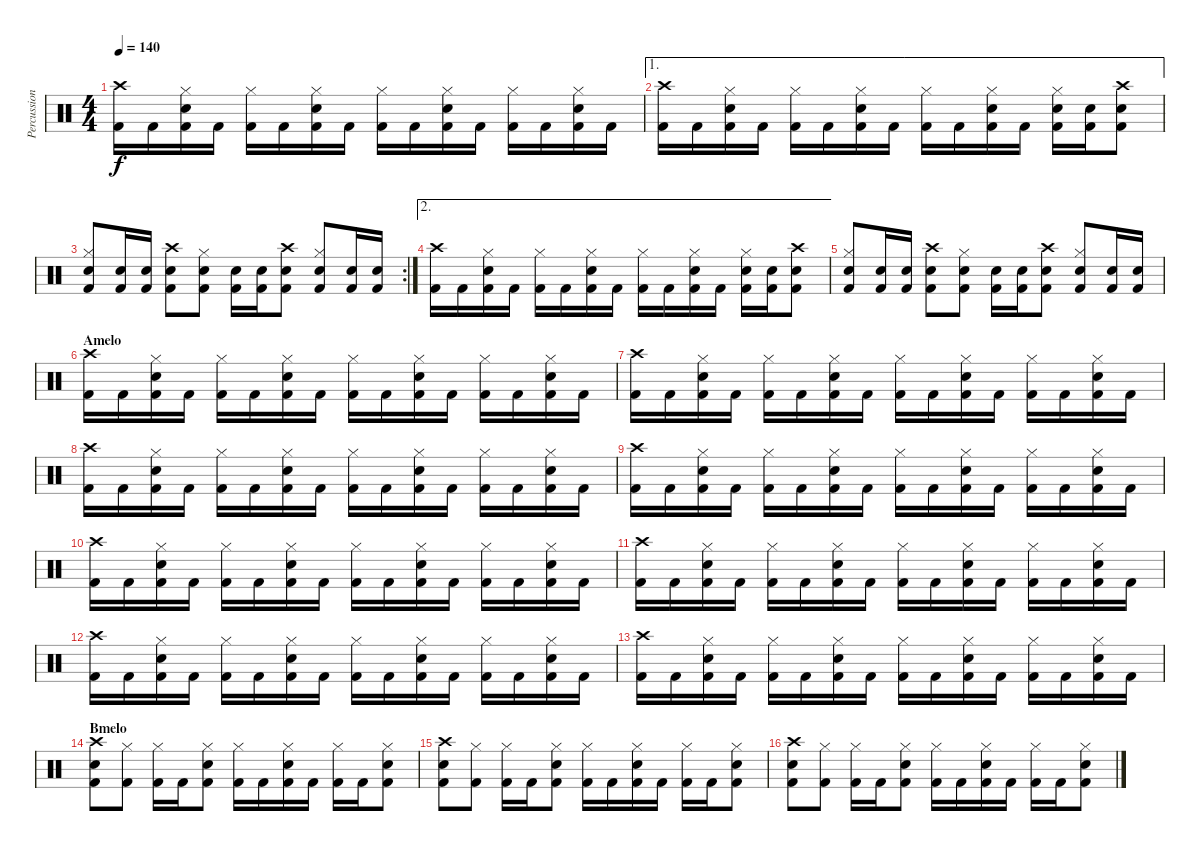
\track ("Percussion" "Percussion") {instrument percussion}
\staff {score}
\articulation defaults
\ts (4 4)
\tempo 140
\clef neutral
\ks aminor
("Crash high (hit)" "Kick (hit) 2").16{dy f} "Kick (hit) 2".16 ("Hi-Hat (closed)" "Snare (hit) 2" "Kick (hit) 2").16 "Kick (hit) 2".16 ("Hi-Hat (closed)" "Kick (hit) 2").16 "Kick (hit) 2".16 ("Hi-Hat (closed)" "Snare (hit) 2" "Kick (hit) 2").16 "Kick (hit) 2".16 ("Hi-Hat (closed)" "Kick (hit) 2").16 "Kick (hit) 2".16 ("Hi-Hat (closed)" "Snare (hit) 2" "Kick (hit) 2").16 "Kick (hit) 2".16 ("Hi-Hat (closed)" "Kick (hit) 2").16 "Kick (hit) 2".16 ("Hi-Hat (closed)" "Snare (hit) 2" "Kick (hit) 2").16 "Kick (hit) 2".16 |
\ae 1
("Crash high (hit)" "Kick (hit) 2").16 "Kick (hit) 2".16 ("Hi-Hat (closed)" "Snare (hit) 2" "Kick (hit) 2").16 "Kick (hit) 2".16 ("Hi-Hat (closed)" "Kick (hit) 2").16 "Kick (hit) 2".16 ("Hi-Hat (closed)" "Snare (hit) 2" "Kick (hit) 2").16 "Kick (hit) 2".16 ("Hi-Hat (closed)" "Kick (hit) 2").16 "Kick (hit) 2".16 ("Hi-Hat (closed)" "Snare (hit) 2" "Kick (hit) 2").16 "Kick (hit) 2".16 ("Hi-Hat (closed)" "Snare (hit) 2" "Kick (hit) 2").16 ("Snare (hit) 2" "Kick (hit) 2").16 ("Crash high (hit)" "Snare (hit) 2" "Kick (hit) 2").8 |
\rc 2
("Hi-Hat (closed)" "Snare (hit) 2" "Kick (hit) 2").8 ("Snare (hit) 2" "Kick (hit) 2").16 ("Snare (hit) 2" "Kick (hit) 2").16 ("Crash high (hit)" "Snare (hit) 2" "Kick (hit) 2").8 ("Hi-Hat (closed)" "Snare (hit) 2" "Kick (hit) 2").8 ("Snare (hit) 2" "Kick (hit) 2").16 ("Snare (hit) 2" "Kick (hit) 2").16 ("Crash high (hit)" "Snare (hit) 2" "Kick (hit) 2").8 ("Hi-Hat (closed)" "Snare (hit) 2" "Kick (hit) 2").8 ("Snare (hit) 2" "Kick (hit) 2").16 ("Snare (hit) 2" "Kick (hit) 2").16 |
\ae 2
("Crash high (hit)" "Kick (hit) 2").16 "Kick (hit) 2".16 ("Hi-Hat (closed)" "Snare (hit) 2" "Kick (hit) 2").16 "Kick (hit) 2".16 ("Hi-Hat (closed)" "Kick (hit) 2").16 "Kick (hit) 2".16 ("Hi-Hat (closed)" "Snare (hit) 2" "Kick (hit) 2").16 "Kick (hit) 2".16 ("Hi-Hat (closed)" "Kick (hit) 2").16 "Kick (hit) 2".16 ("Hi-Hat (closed)" "Snare (hit) 2" "Kick (hit) 2").16 "Kick (hit) 2".16 ("Hi-Hat (closed)" "Snare (hit) 2" "Kick (hit) 2").16 ("Snare (hit) 2" "Kick (hit) 2").16 ("Crash high (hit)" "Snare (hit) 2" "Kick (hit) 2").8 |
("Hi-Hat (closed)" "Snare (hit) 2" "Kick (hit) 2").8 ("Snare (hit) 2" "Kick (hit) 2").16 ("Snare (hit) 2" "Kick (hit) 2").16 ("Crash high (hit)" "Snare (hit) 2" "Kick (hit) 2").8 ("Hi-Hat (closed)" "Snare (hit) 2" "Kick (hit) 2").8 ("Snare (hit) 2" "Kick (hit) 2").16 ("Snare (hit) 2" "Kick (hit) 2").16 ("Crash high (hit)" "Snare (hit) 2" "Kick (hit) 2").8 ("Hi-Hat (closed)" "Snare (hit) 2" "Kick (hit) 2").8 ("Snare (hit) 2" "Kick (hit) 2").16 ("Snare (hit) 2" "Kick (hit) 2").16 |
\section ("" "Amelo")
("Crash high (hit)" "Kick (hit) 2").16 "Kick (hit) 2".16 ("Hi-Hat (closed)" "Snare (hit) 2" "Kick (hit) 2").16 "Kick (hit) 2".16 ("Hi-Hat (closed)" "Kick (hit) 2").16 "Kick (hit) 2".16 ("Hi-Hat (closed)" "Snare (hit) 2" "Kick (hit) 2").16 "Kick (hit) 2".16 ("Hi-Hat (closed)" "Kick (hit) 2").16 "Kick (hit) 2".16 ("Hi-Hat (closed)" "Snare (hit) 2" "Kick (hit) 2").16 "Kick (hit) 2".16 ("Hi-Hat (closed)" "Kick (hit) 2").16 "Kick (hit) 2".16 ("Hi-Hat (closed)" "Snare (hit) 2" "Kick (hit) 2").16 "Kick (hit) 2".16 |
("Crash high (hit)" "Kick (hit) 2").16 "Kick (hit) 2".16 ("Hi-Hat (closed)" "Snare (hit) 2" "Kick (hit) 2").16 "Kick (hit) 2".16 ("Hi-Hat (closed)" "Kick (hit) 2").16 "Kick (hit) 2".16 ("Hi-Hat (closed)" "Snare (hit) 2" "Kick (hit) 2").16 "Kick (hit) 2".16 ("Hi-Hat (closed)" "Kick (hit) 2").16 "Kick (hit) 2".16 ("Hi-Hat (closed)" "Snare (hit) 2" "Kick (hit) 2").16 "Kick (hit) 2".16 ("Hi-Hat (closed)" "Kick (hit) 2").16 "Kick (hit) 2".16 ("Hi-Hat (closed)" "Snare (hit) 2" "Kick (hit) 2").16 "Kick (hit) 2".16 |
("Crash high (hit)" "Kick (hit) 2").16 "Kick (hit) 2".16 ("Hi-Hat (closed)" "Snare (hit) 2" "Kick (hit) 2").16 "Kick (hit) 2".16 ("Hi-Hat (closed)" "Kick (hit) 2").16 "Kick (hit) 2".16 ("Hi-Hat (closed)" "Snare (hit) 2" "Kick (hit) 2").16 "Kick (hit) 2".16 ("Hi-Hat (closed)" "Kick (hit) 2").16 "Kick (hit) 2".16 ("Hi-Hat (closed)" "Snare (hit) 2" "Kick (hit) 2").16 "Kick (hit) 2".16 ("Hi-Hat (closed)" "Kick (hit) 2").16 "Kick (hit) 2".16 ("Hi-Hat (closed)" "Snare (hit) 2" "Kick (hit) 2").16 "Kick (hit) 2".16 |
("Crash high (hit)" "Kick (hit) 2").16 "Kick (hit) 2".16 ("Hi-Hat (closed)" "Snare (hit) 2" "Kick (hit) 2").16 "Kick (hit) 2".16 ("Hi-Hat (closed)" "Kick (hit) 2").16 "Kick (hit) 2".16 ("Hi-Hat (closed)" "Snare (hit) 2" "Kick (hit) 2").16 "Kick (hit) 2".16 ("Hi-Hat (closed)" "Kick (hit) 2").16 "Kick (hit) 2".16 ("Hi-Hat (closed)" "Snare (hit) 2" "Kick (hit) 2").16 "Kick (hit) 2".16 ("Hi-Hat (closed)" "Kick (hit) 2").16 "Kick (hit) 2".16 ("Hi-Hat (closed)" "Snare (hit) 2" "Kick (hit) 2").16 "Kick (hit) 2".16 |
("Crash high (hit)" "Kick (hit) 2").16 "Kick (hit) 2".16 ("Hi-Hat (closed)" "Snare (hit) 2" "Kick (hit) 2").16 "Kick (hit) 2".16 ("Hi-Hat (closed)" "Kick (hit) 2").16 "Kick (hit) 2".16 ("Hi-Hat (closed)" "Snare (hit) 2" "Kick (hit) 2").16 "Kick (hit) 2".16 ("Hi-Hat (closed)" "Kick (hit) 2").16 "Kick (hit) 2".16 ("Hi-Hat (closed)" "Snare (hit) 2" "Kick (hit) 2").16 "Kick (hit) 2".16 ("Hi-Hat (closed)" "Kick (hit) 2").16 "Kick (hit) 2".16 ("Hi-Hat (closed)" "Snare (hit) 2" "Kick (hit) 2").16 "Kick (hit) 2".16 |
("Crash high (hit)" "Kick (hit) 2").16 "Kick (hit) 2".16 ("Hi-Hat (closed)" "Snare (hit) 2" "Kick (hit) 2").16 "Kick (hit) 2".16 ("Hi-Hat (closed)" "Kick (hit) 2").16 "Kick (hit) 2".16 ("Hi-Hat (closed)" "Snare (hit) 2" "Kick (hit) 2").16 "Kick (hit) 2".16 ("Hi-Hat (closed)" "Kick (hit) 2").16 "Kick (hit) 2".16 ("Hi-Hat (closed)" "Snare (hit) 2" "Kick (hit) 2").16 "Kick (hit) 2".16 ("Hi-Hat (closed)" "Kick (hit) 2").16 "Kick (hit) 2".16 ("Hi-Hat (closed)" "Snare (hit) 2" "Kick (hit) 2").16 "Kick (hit) 2".16 |
("Crash high (hit)" "Kick (hit) 2").16 "Kick (hit) 2".16 ("Hi-Hat (closed)" "Snare (hit) 2" "Kick (hit) 2").16 "Kick (hit) 2".16 ("Hi-Hat (closed)" "Kick (hit) 2").16 "Kick (hit) 2".16 ("Hi-Hat (closed)" "Snare (hit) 2" "Kick (hit) 2").16 "Kick (hit) 2".16 ("Hi-Hat (closed)" "Kick (hit) 2").16 "Kick (hit) 2".16 ("Hi-Hat (closed)" "Snare (hit) 2" "Kick (hit) 2").16 "Kick (hit) 2".16 ("Hi-Hat (closed)" "Kick (hit) 2").16 "Kick (hit) 2".16 ("Hi-Hat (closed)" "Snare (hit) 2" "Kick (hit) 2").16 "Kick (hit) 2".16 |
("Crash high (hit)" "Kick (hit) 2").16 "Kick (hit) 2".16 ("Hi-Hat (closed)" "Snare (hit) 2" "Kick (hit) 2").16 "Kick (hit) 2".16 ("Hi-Hat (closed)" "Kick (hit) 2").16 "Kick (hit) 2".16 ("Hi-Hat (closed)" "Snare (hit) 2" "Kick (hit) 2").16 "Kick (hit) 2".16 ("Hi-Hat (closed)" "Kick (hit) 2").16 "Kick (hit) 2".16 ("Hi-Hat (closed)" "Snare (hit) 2" "Kick (hit) 2").16 "Kick (hit) 2".16 ("Hi-Hat (closed)" "Kick (hit) 2").16 "Kick (hit) 2".16 ("Hi-Hat (closed)" "Snare (hit) 2" "Kick (hit) 2").16 "Kick (hit) 2".16 |
\section ("" "Bmelo")
("Crash high (hit)" "Snare (hit) 2" "Kick (hit) 2").8 ("Hi-Hat (closed)" "Kick (hit) 2").8 ("Hi-Hat (closed)" "Kick (hit) 2").16 "Kick (hit) 2".16 ("Hi-Hat (closed)" "Snare (hit) 2" "Kick (hit) 2").8 ("Hi-Hat (closed)" "Kick (hit) 2").16 "Kick (hit) 2".16 ("Hi-Hat (closed)" "Snare (hit) 2" "Kick (hit) 2").16 "Kick (hit) 2".16 ("Hi-Hat (closed)" "Kick (hit) 2").16 "Kick (hit) 2".16 ("Hi-Hat (closed)" "Snare (hit) 2" "Kick (hit) 2").8 |
("Crash high (hit)" "Snare (hit) 2" "Kick (hit) 2").8 ("Hi-Hat (closed)" "Kick (hit) 2").8 ("Hi-Hat (closed)" "Kick (hit) 2").16 "Kick (hit) 2".16 ("Hi-Hat (closed)" "Snare (hit) 2" "Kick (hit) 2").8 ("Hi-Hat (closed)" "Kick (hit) 2").16 "Kick (hit) 2".16 ("Hi-Hat (closed)" "Snare (hit) 2" "Kick (hit) 2").16 "Kick (hit) 2".16 ("Hi-Hat (closed)" "Kick (hit) 2").16 "Kick (hit) 2".16 ("Hi-Hat (closed)" "Snare (hit) 2" "Kick (hit) 2").8 |
("Crash high (hit)" "Snare (hit) 2" "Kick (hit) 2").8 ("Hi-Hat (closed)" "Kick (hit) 2").8 ("Hi-Hat (closed)" "Kick (hit) 2").16 "Kick (hit) 2".16 ("Hi-Hat (closed)" "Snare (hit) 2" "Kick (hit) 2").8 ("Hi-Hat (closed)" "Kick (hit) 2").16 "Kick (hit) 2".16 ("Hi-Hat (closed)" "Snare (hit) 2" "Kick (hit) 2").16 "Kick (hit) 2".16 ("Hi-Hat (closed)" "Kick (hit) 2").16 "Kick (hit) 2".16 ("Hi-Hat (closed)" "Snare (hit) 2" "Kick (hit) 2").8
